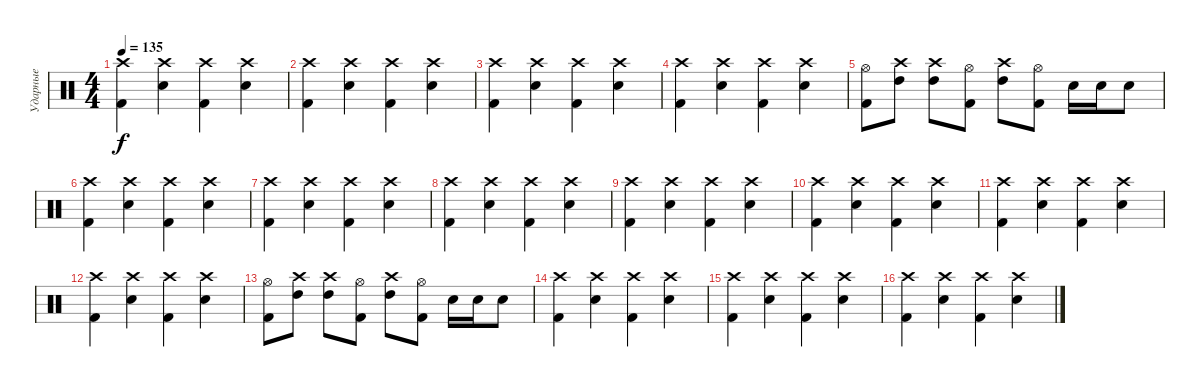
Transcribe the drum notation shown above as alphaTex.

\track ("Ударные" "Ударные") {instrument percussion}
\staff {score}
\articulation defaults
\ts (4 4)
\tempo 135
\clef neutral
\ks c
("Crash high (hit)" "Kick (hit) 2").4{dy f} ("Crash high (hit)" "Snare (hit) 2").4 ("Crash high (hit)" "Kick (hit) 2").4 ("Crash high (hit)" "Snare (hit) 2").4 |
("Crash high (hit)" "Kick (hit) 2").4 ("Crash high (hit)" "Snare (hit) 2").4 ("Crash high (hit)" "Kick (hit) 2").4 ("Crash high (hit)" "Snare (hit) 2").4 |
("Crash high (hit)" "Kick (hit) 2").4 ("Crash high (hit)" "Snare (hit) 2").4 ("Crash high (hit)" "Kick (hit) 2").4 ("Crash high (hit)" "Snare (hit) 2").4 |
("Crash high (hit)" "Kick (hit) 2").4 ("Crash high (hit)" "Snare (hit) 2").4 ("Crash high (hit)" "Kick (hit) 2").4 ("Crash high (hit)" "Snare (hit) 2").4 |
("Hi-Hat (open)" "Kick (hit) 2").8 ("Crash high (hit)" "High Tom (hit)").8 ("Crash high (hit)" "High Tom (hit)").8 ("Hi-Hat (open)" "Kick (hit) 2").8 ("Crash high (hit)" "High Tom (hit)").8 ("Hi-Hat (open)" "Kick (hit) 2").8 "Snare (hit) 2".16 "Snare (hit) 2".16 "Snare (hit) 2".8 |
("Crash high (hit)" "Kick (hit) 2").4 ("Crash high (hit)" "Snare (hit) 2").4 ("Crash high (hit)" "Kick (hit) 2").4 ("Crash high (hit)" "Snare (hit) 2").4 |
("Crash high (hit)" "Kick (hit) 2").4 ("Crash high (hit)" "Snare (hit) 2").4 ("Crash high (hit)" "Kick (hit) 2").4 ("Crash high (hit)" "Snare (hit) 2").4 |
("Crash high (hit)" "Kick (hit) 2").4 ("Crash high (hit)" "Snare (hit) 2").4 ("Crash high (hit)" "Kick (hit) 2").4 ("Crash high (hit)" "Snare (hit) 2").4 |
("Crash high (hit)" "Kick (hit) 2").4 ("Crash high (hit)" "Snare (hit) 2").4 ("Crash high (hit)" "Kick (hit) 2").4 ("Crash high (hit)" "Snare (hit) 2").4 |
("Crash high (hit)" "Kick (hit) 2").4 ("Crash high (hit)" "Snare (hit) 2").4 ("Crash high (hit)" "Kick (hit) 2").4 ("Crash high (hit)" "Snare (hit) 2").4 |
("Crash high (hit)" "Kick (hit) 2").4 ("Crash high (hit)" "Snare (hit) 2").4 ("Crash high (hit)" "Kick (hit) 2").4 ("Crash high (hit)" "Snare (hit) 2").4 |
("Crash high (hit)" "Kick (hit) 2").4 ("Crash high (hit)" "Snare (hit) 2").4 ("Crash high (hit)" "Kick (hit) 2").4 ("Crash high (hit)" "Snare (hit) 2").4 |
("Hi-Hat (open)" "Kick (hit) 2").8 ("Crash high (hit)" "High Tom (hit)").8 ("Crash high (hit)" "High Tom (hit)").8 ("Hi-Hat (open)" "Kick (hit) 2").8 ("Crash high (hit)" "High Tom (hit)").8 ("Hi-Hat (open)" "Kick (hit) 2").8 "Snare (hit) 2".16 "Snare (hit) 2".16 "Snare (hit) 2".8 |
("Crash high (hit)" "Kick (hit) 2").4 ("Crash high (hit)" "Snare (hit) 2").4 ("Crash high (hit)" "Kick (hit) 2").4 ("Crash high (hit)" "Snare (hit) 2").4 |
("Crash high (hit)" "Kick (hit) 2").4 ("Crash high (hit)" "Snare (hit) 2").4 ("Crash high (hit)" "Kick (hit) 2").4 ("Crash high (hit)" "Snare (hit) 2").4 |
("Crash high (hit)" "Kick (hit) 2").4 ("Crash high (hit)" "Snare (hit) 2").4 ("Crash high (hit)" "Kick (hit) 2").4 ("Crash high (hit)" "Snare (hit) 2").4
